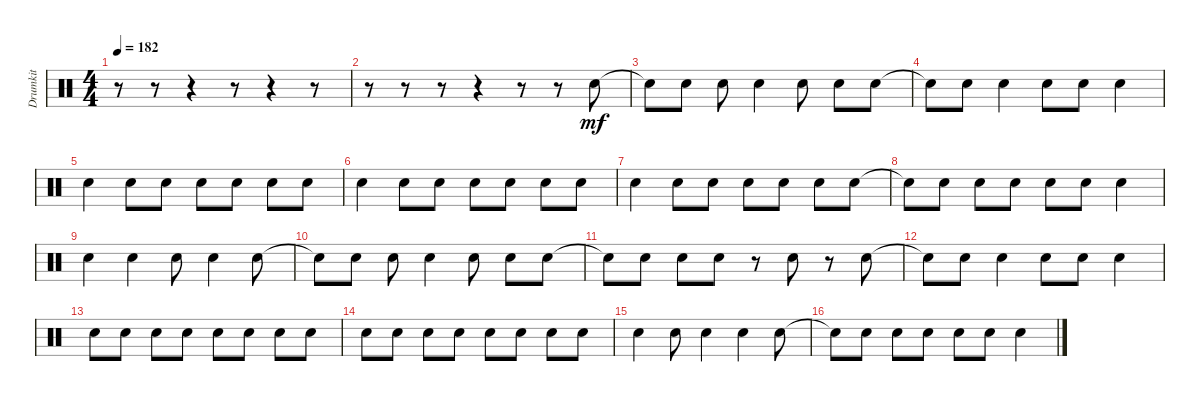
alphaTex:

\track ("Drumkit" "Drumkit") {instrument percussion}
\staff {score}
\articulation defaults
\ts (4 4)
\tempo 182
\clef neutral
\ks c
r.8{dy mf} r.8 r.4 r.8 r.4 r.8 |
r.8 r.8 r.8 r.4 r.8 r.8 "Snare (hit)".8 |
"Snare (hit)"{t}.8 "Snare (hit)".8 "Snare (hit)".8 "Snare (hit)".4 "Snare (hit)".8 "Snare (hit)".8 "Snare (hit)".8 |
"Snare (hit)"{t}.8 "Snare (hit)".8 "Snare (hit)".4 "Snare (hit)".8 "Snare (hit)".8 "Snare (hit)".4 |
"Snare (hit)".4 "Snare (hit)".8 "Snare (hit)".8 "Snare (hit)".8 "Snare (hit)".8 "Snare (hit)".8 "Snare (hit)".8 |
"Snare (hit)".4 "Snare (hit)".8 "Snare (hit)".8 "Snare (hit)".8 "Snare (hit)".8 "Snare (hit)".8 "Snare (hit)".8 |
"Snare (hit)".4 "Snare (hit)".8 "Snare (hit)".8 "Snare (hit)".8 "Snare (hit)".8 "Snare (hit)".8 "Snare (hit)".8 |
"Snare (hit)"{t}.8 "Snare (hit)".8 "Snare (hit)".8 "Snare (hit)".8 "Snare (hit)".8 "Snare (hit)".8 "Snare (hit)".4 |
"Snare (hit)".4 "Snare (hit)".4 "Snare (hit)".8 "Snare (hit)".4 "Snare (hit)".8 |
"Snare (hit)"{t}.8 "Snare (hit)".8 "Snare (hit)".8 "Snare (hit)".4 "Snare (hit)".8 "Snare (hit)".8 "Snare (hit)".8 |
"Snare (hit)"{t}.8 "Snare (hit)".8 "Snare (hit)".8 "Snare (hit)".8 r.8 "Snare (hit)".8 r.8 "Snare (hit)".8 |
"Snare (hit)"{t}.8 "Snare (hit)".8 "Snare (hit)".4 "Snare (hit)".8 "Snare (hit)".8 "Snare (hit)".4 |
"Snare (hit)".8 "Snare (hit)".8 "Snare (hit)".8 "Snare (hit)".8 "Snare (hit)".8 "Snare (hit)".8 "Snare (hit)".8 "Snare (hit)".8 |
"Snare (hit)".8 "Snare (hit)".8 "Snare (hit)".8 "Snare (hit)".8 "Snare (hit)".8 "Snare (hit)".8 "Snare (hit)".8 "Snare (hit)".8 |
"Snare (hit)".4 "Snare (hit)".8 "Snare (hit)".4 "Snare (hit)".4 "Snare (hit)".8 |
"Snare (hit)"{t}.8 "Snare (hit)".8 "Snare (hit)".8 "Snare (hit)".8 "Snare (hit)".8 "Snare (hit)".8 "Snare (hit)".4
